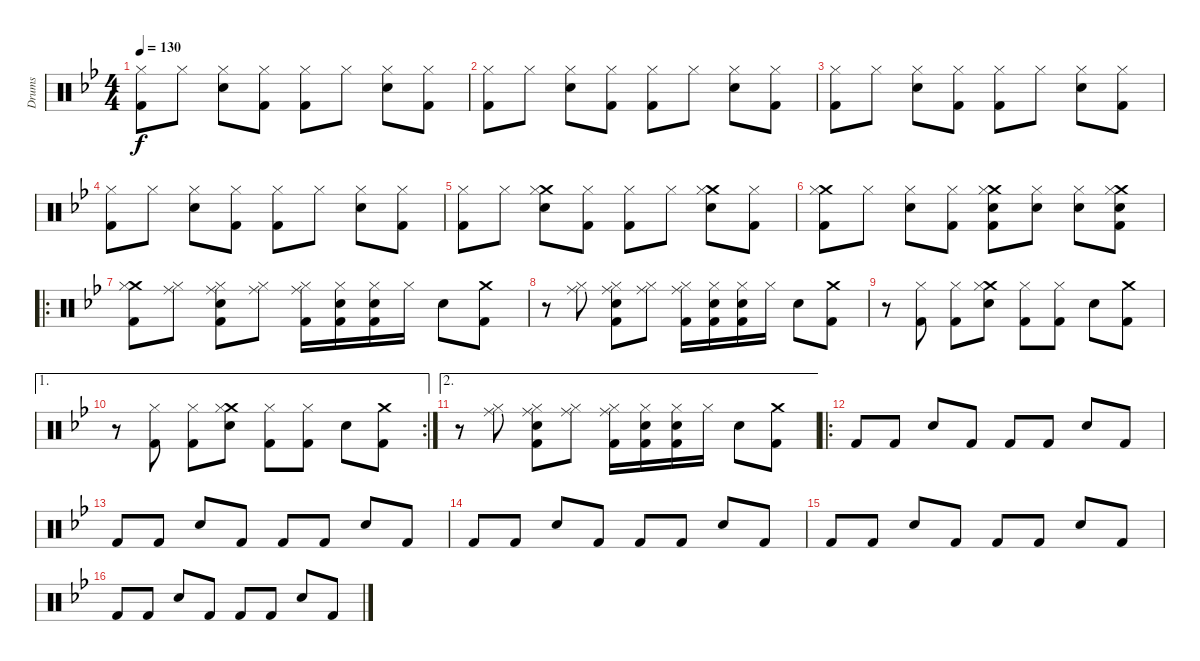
\track ("Drums" "Drums") {instrument percussion}
\staff {score}
\articulation defaults
\ts (4 4)
\tempo 130
\clef neutral
\ks bb
("Hi-Hat (closed)" "Kick (hit) 2").8{dy f} "Hi-Hat (closed)".8 ("Hi-Hat (closed)" "Electric Snare (hit)").8 ("Hi-Hat (closed)" "Kick (hit) 2").8 ("Hi-Hat (closed)" "Kick (hit) 2").8 "Hi-Hat (closed)".8 ("Hi-Hat (closed)" "Electric Snare (hit)").8 ("Hi-Hat (closed)" "Kick (hit) 2").8 |
("Hi-Hat (closed)" "Kick (hit) 2").8 "Hi-Hat (closed)".8 ("Hi-Hat (closed)" "Electric Snare (hit)").8 ("Hi-Hat (closed)" "Kick (hit) 2").8 ("Hi-Hat (closed)" "Kick (hit) 2").8 "Hi-Hat (closed)".8 ("Hi-Hat (closed)" "Electric Snare (hit)").8 ("Hi-Hat (closed)" "Kick (hit) 2").8 |
("Hi-Hat (closed)" "Kick (hit) 2").8 "Hi-Hat (closed)".8 ("Hi-Hat (closed)" "Electric Snare (hit)").8 ("Hi-Hat (closed)" "Kick (hit) 2").8 ("Hi-Hat (closed)" "Kick (hit) 2").8 "Hi-Hat (closed)".8 ("Hi-Hat (closed)" "Electric Snare (hit)").8 ("Hi-Hat (closed)" "Kick (hit) 2").8 |
("Hi-Hat (closed)" "Kick (hit) 2").8 "Hi-Hat (closed)".8 ("Hi-Hat (closed)" "Electric Snare (hit)").8 ("Hi-Hat (closed)" "Kick (hit) 2").8 ("Hi-Hat (closed)" "Kick (hit) 2").8 "Hi-Hat (closed)".8 ("Hi-Hat (closed)" "Electric Snare (hit)").8 ("Hi-Hat (closed)" "Kick (hit) 2").8 |
("Hi-Hat (closed)" "Kick (hit) 2").8 "Hi-Hat (closed)".8 ("Crash medium (hit)" "Hi-Hat (closed)" "Electric Snare (hit)").8 ("Hi-Hat (closed)" "Kick (hit) 2").8 ("Hi-Hat (closed)" "Kick (hit) 2").8 "Hi-Hat (closed)".8 ("Crash medium (hit)" "Hi-Hat (closed)" "Electric Snare (hit)").8 ("Hi-Hat (closed)" "Kick (hit) 2").8 |
("Crash medium (hit)" "Hi-Hat (closed)" "Kick (hit) 2").8 "Hi-Hat (closed)".8 ("Hi-Hat (closed)" "Electric Snare (hit)").8 ("Hi-Hat (closed)" "Kick (hit) 2").8 ("Crash medium (hit)" "Hi-Hat (closed)" "Electric Snare (hit)" "Kick (hit) 2").8 ("Hi-Hat (closed)" "Electric Snare (hit)").8 ("Hi-Hat (closed)" "Electric Snare (hit)").8 ("Crash medium (hit)" "Hi-Hat (closed)" "Electric Snare (hit)" "Kick (hit) 2").8 |
\ro
("Crash medium (hit)" "Hi-Hat (closed)" "Kick (hit) 2").8 ("Ride (middle)" "Hi-Hat (closed)").8 ("Ride (middle)" "Hi-Hat (closed)" "Electric Snare (hit)" "Kick (hit) 2").8 ("Ride (middle)" "Hi-Hat (closed)").8 ("Ride (middle)" "Hi-Hat (closed)" "Kick (hit) 2").16 ("Hi-Hat (closed)" "Electric Snare (hit)" "Kick (hit) 2").16 ("Hi-Hat (closed)" "Electric Snare (hit)" "Kick (hit) 2").16 "Hi-Hat (closed)".16 "Electric Snare (hit)".8 ("Crash medium (hit)" "Kick (hit) 2").8 |
r.8 ("Ride (middle)" "Hi-Hat (closed)").8 ("Ride (middle)" "Hi-Hat (closed)" "Electric Snare (hit)" "Kick (hit) 2").8 ("Ride (middle)" "Hi-Hat (closed)").8 ("Ride (middle)" "Hi-Hat (closed)" "Kick (hit) 2").16 ("Hi-Hat (closed)" "Electric Snare (hit)" "Kick (hit) 2").16 ("Hi-Hat (closed)" "Electric Snare (hit)" "Kick (hit) 2").16 "Hi-Hat (closed)".16 "Electric Snare (hit)".8 ("Crash medium (hit)" "Kick (hit) 2").8 |
r.8 ("Hi-Hat (closed)" "Kick (hit) 2").8 ("Hi-Hat (closed)" "Kick (hit) 2").8 ("Crash medium (hit)" "Hi-Hat (closed)" "Electric Snare (hit)").8 ("Hi-Hat (closed)" "Kick (hit) 2").8 ("Hi-Hat (closed)" "Kick (hit) 2").8 "Electric Snare (hit)".8 ("Crash medium (hit)" "Kick (hit) 2").8 |
\ae 1
\rc 2
r.8 ("Hi-Hat (closed)" "Kick (hit) 2").8 ("Hi-Hat (closed)" "Kick (hit) 2").8 ("Crash medium (hit)" "Hi-Hat (closed)" "Electric Snare (hit)").8 ("Hi-Hat (closed)" "Kick (hit) 2").8 ("Hi-Hat (closed)" "Kick (hit) 2").8 "Electric Snare (hit)".8 ("Crash medium (hit)" "Kick (hit) 2").8 |
\ae 2
r.8 ("Ride (middle)" "Hi-Hat (closed)").8 ("Ride (middle)" "Hi-Hat (closed)" "Electric Snare (hit)" "Kick (hit) 2").8 ("Ride (middle)" "Hi-Hat (closed)").8 ("Ride (middle)" "Hi-Hat (closed)" "Kick (hit) 2").16 ("Hi-Hat (closed)" "Electric Snare (hit)" "Kick (hit) 2").16 ("Hi-Hat (closed)" "Electric Snare (hit)" "Kick (hit) 2").16 "Hi-Hat (closed)".16 "Electric Snare (hit)".8 ("Crash medium (hit)" "Kick (hit) 2").8 |
\ro "Kick (hit) 2".8 "Kick (hit) 2".8 "Electric Snare (hit)".8 "Kick (hit) 2".8 "Kick (hit) 2".8 "Kick (hit) 2".8 "Electric Snare (hit)".8 "Kick (hit) 2".8
|
"Kick (hit) 2".8 "Kick (hit) 2".8 "Electric Snare (hit)".8 "Kick (hit) 2".8 "Kick (hit) 2".8 "Kick (hit) 2".8 "Electric Snare (hit)".8 "Kick (hit) 2".8 |
"Kick (hit) 2".8 "Kick (hit) 2".8 "Electric Snare (hit)".8 "Kick (hit) 2".8 "Kick (hit) 2".8 "Kick (hit) 2".8 "Electric Snare (hit)".8 "Kick (hit) 2".8 |
"Kick (hit) 2".8 "Kick (hit) 2".8 "Electric Snare (hit)".8 "Kick (hit) 2".8 "Kick (hit) 2".8 "Kick (hit) 2".8 "Electric Snare (hit)".8 "Kick (hit) 2".8 |
"Kick (hit) 2".8 "Kick (hit) 2".8 "Electric Snare (hit)".8 "Kick (hit) 2".8 "Kick (hit) 2".8 "Kick (hit) 2".8 "Electric Snare (hit)".8 "Kick (hit) 2".8
